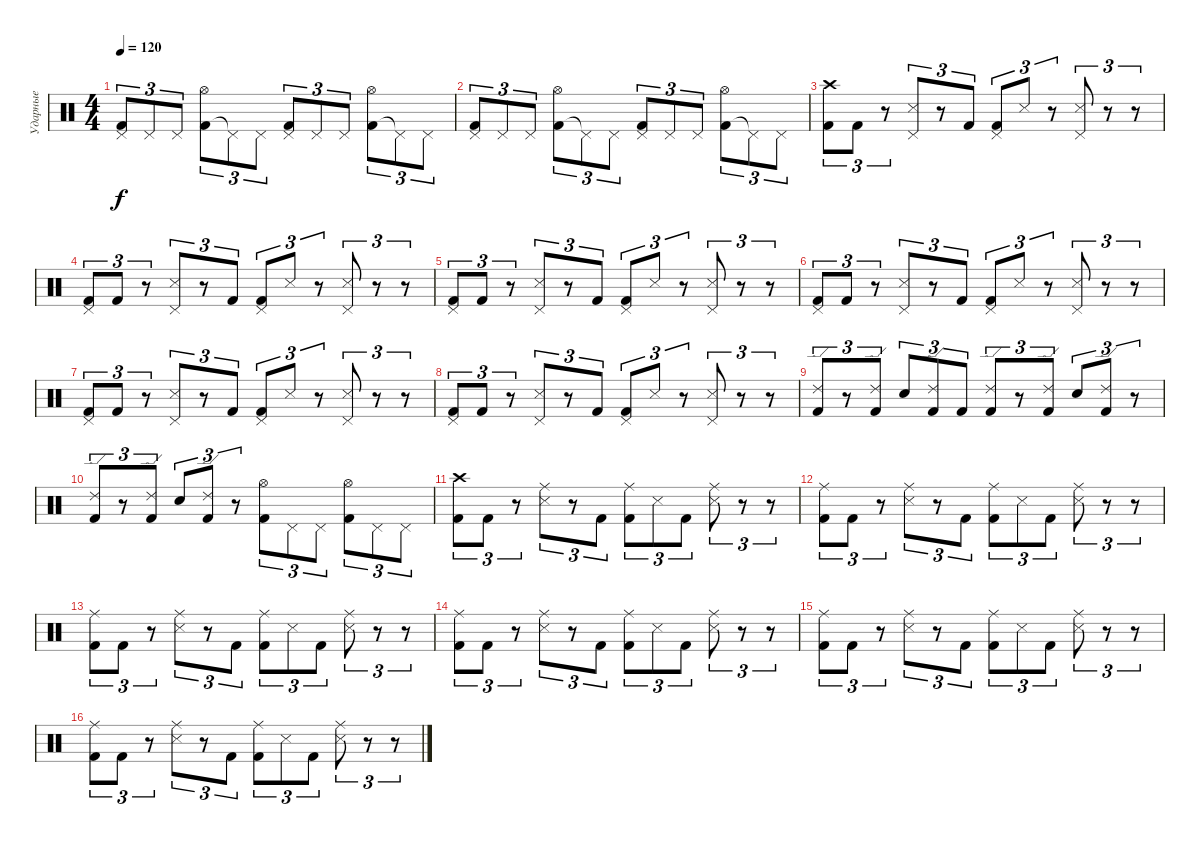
\track ("Ударные" "Ударные") {instrument percussion}
\staff {score}
\articulation defaults
\ts (4 4)
\tempo 120
\clef neutral
\ks c
("Kick (hit) 2" "Pedal Hi-Hat (hit)").8{tu (3 2) dy f} "Pedal Hi-Hat (hit)".8{tu (3 2)} "Pedal Hi-Hat (hit)".8{tu (3 2)} ("Kick (hit) 2" "Hi-Hat (open)").8{tu (3 2)} "Pedal Hi-Hat (hit)"{t}.8{tu (3 2)} "Pedal Hi-Hat (hit)".8{tu (3 2)} ("Kick (hit) 2" "Pedal Hi-Hat (hit)").8{tu (3 2)} "Pedal Hi-Hat (hit)".8{tu (3 2)} "Pedal Hi-Hat (hit)".8{tu (3 2)} ("Kick (hit) 2" "Hi-Hat (open)").8{tu (3 2)} "Pedal Hi-Hat (hit)"{t}.8{tu (3 2)} "Pedal Hi-Hat (hit)".8{tu (3 2)} |
("Kick (hit) 2" "Pedal Hi-Hat (hit)").8{tu (3 2)} "Pedal Hi-Hat (hit)".8{tu (3 2)} "Pedal Hi-Hat (hit)".8{tu (3 2)} ("Kick (hit) 2" "Hi-Hat (open)").8{tu (3 2)} "Pedal Hi-Hat (hit)"{t}.8{tu (3 2)} "Pedal Hi-Hat (hit)".8{tu (3 2)} ("Kick (hit) 2" "Pedal Hi-Hat (hit)").8{tu (3 2)} "Pedal Hi-Hat (hit)".8{tu (3 2)} "Pedal Hi-Hat (hit)".8{tu (3 2)} ("Kick (hit) 2" "Hi-Hat (open)").8{tu (3 2)} "Pedal Hi-Hat (hit)"{t}.8{tu (3 2)} "Pedal Hi-Hat (hit)".8{tu (3 2)} |
("Kick (hit) 2" "Crash high (hit)").8{tu (3 2)} "Kick (hit) 2".8{tu (3 2)} r.8{tu (3 2)} ("Snare (side stick) 3" "Pedal Hi-Hat (hit)").8{tu (3 2)} r.8{tu (3 2)} "Kick (hit) 2".8{tu (3 2)} ("Kick (hit) 2" "Pedal Hi-Hat (hit)").8{tu (3 2)} "Snare (side stick) 3".8{tu (3 2)} r.8{tu (3 2)} ("Snare (side stick) 3" "Pedal Hi-Hat (hit)").8{tu (3 2)} r.8{tu (3 2)} r.8{tu (3 2)} |
("Kick (hit) 2" "Pedal Hi-Hat (hit)").8{tu (3 2)} "Kick (hit) 2".8{tu (3 2)} r.8{tu (3 2)} ("Snare (side stick) 3" "Pedal Hi-Hat (hit)").8{tu (3 2)} r.8{tu (3 2)} "Kick (hit) 2".8{tu (3 2)} ("Kick (hit) 2" "Pedal Hi-Hat (hit)").8{tu (3 2)} "Snare (side stick) 3".8{tu (3 2)} r.8{tu (3 2)} ("Snare (side stick) 3" "Pedal Hi-Hat (hit)").8{tu (3 2)} r.8{tu (3 2)} r.8{tu (3 2)} |
("Kick (hit) 2" "Pedal Hi-Hat (hit)").8{tu (3 2)} "Kick (hit) 2".8{tu (3 2)} r.8{tu (3 2)} ("Snare (side stick) 3" "Pedal Hi-Hat (hit)").8{tu (3 2)} r.8{tu (3 2)} "Kick (hit) 2".8{tu (3 2)} ("Kick (hit) 2" "Pedal Hi-Hat (hit)").8{tu (3 2)} "Snare (side stick) 3".8{tu (3 2)} r.8{tu (3 2)} ("Snare (side stick) 3" "Pedal Hi-Hat (hit)").8{tu (3 2)} r.8{tu (3 2)} r.8{tu (3 2)} |
("Kick (hit) 2" "Pedal Hi-Hat (hit)").8{tu (3 2)} "Kick (hit) 2".8{tu (3 2)} r.8{tu (3 2)} ("Snare (side stick) 3" "Pedal Hi-Hat (hit)").8{tu (3 2)} r.8{tu (3 2)} "Kick (hit) 2".8{tu (3 2)} ("Kick (hit) 2" "Pedal Hi-Hat (hit)").8{tu (3 2)} "Snare (side stick) 3".8{tu (3 2)} r.8{tu (3 2)} ("Snare (side stick) 3" "Pedal Hi-Hat (hit)").8{tu (3 2)} r.8{tu (3 2)} r.8{tu (3 2)} |
("Kick (hit) 2" "Pedal Hi-Hat (hit)").8{tu (3 2)} "Kick (hit) 2".8{tu (3 2)} r.8{tu (3 2)} ("Snare (side stick) 3" "Pedal Hi-Hat (hit)").8{tu (3 2)} r.8{tu (3 2)} "Kick (hit) 2".8{tu (3 2)} ("Kick (hit) 2" "Pedal Hi-Hat (hit)").8{tu (3 2)} "Snare (side stick) 3".8{tu (3 2)} r.8{tu (3 2)} ("Snare (side stick) 3" "Pedal Hi-Hat (hit)").8{tu (3 2)} r.8{tu (3 2)} r.8{tu (3 2)} |
("Kick (hit) 2" "Pedal Hi-Hat (hit)").8{tu (3 2)} "Kick (hit) 2".8{tu (3 2)} r.8{tu (3 2)} ("Snare (side stick) 3" "Pedal Hi-Hat (hit)").8{tu (3 2)} r.8{tu (3 2)} "Kick (hit) 2".8{tu (3 2)} ("Kick (hit) 2" "Pedal Hi-Hat (hit)").8{tu (3 2)} "Snare (side stick) 3".8{tu (3 2)} r.8{tu (3 2)} ("Snare (side stick) 3" "Pedal Hi-Hat (hit)").8{tu (3 2)} r.8{tu (3 2)} r.8{tu (3 2)} |
("Kick (hit) 2" "Ride (edge) 2").8{tu (3 2)} r.8{tu (3 2)} ("Kick (hit) 2" "Ride (edge) 2").8{tu (3 2)} "Snare (hit) 2".8{tu (3 2)} ("Kick (hit) 2" "Ride (edge) 2").8{tu (3 2)} "Kick (hit) 2".8{tu (3 2)} ("Kick (hit) 2" "Ride (edge) 2").8{tu (3 2)} r.8{tu (3 2)} ("Kick (hit) 2" "Ride (edge) 2").8{tu (3 2)} "Snare (hit) 2".8{tu (3 2)} ("Kick (hit) 2" "Ride (edge) 2").8{tu (3 2)} r.8{tu (3 2)} |
("Kick (hit) 2" "Ride (edge) 2").8{tu (3 2)} r.8{tu (3 2)} ("Kick (hit) 2" "Ride (edge) 2").8{tu (3 2)} "Snare (hit) 2".8{tu (3 2)} ("Kick (hit) 2" "Ride (edge) 2").8{tu (3 2)} r.8{tu (3 2)} ("Kick (hit) 2" "Hi-Hat (open)").8{tu (3 2)} "Pedal Hi-Hat (hit)".8{tu (3 2)} "Pedal Hi-Hat (hit)".8{tu (3 2)} ("Kick (hit) 2" "Hi-Hat (open)").8{tu (3 2)} "Pedal Hi-Hat (hit)".8{tu (3 2)} "Pedal Hi-Hat (hit)".8{tu (3 2)} |
("Kick (hit) 2" "Crash high (hit)").8{tu (3 2)} "Kick (hit) 2".8{tu (3 2)} r.8{tu (3 2)} ("Snare (side stick) 3" "Ride (middle)").8{tu (3 2)} r.8{tu (3 2)} "Kick (hit) 2".8{tu (3 2)} ("Kick (hit) 2" "Ride (middle)").8{tu (3 2)} "Snare (side stick) 3".8{tu (3 2)} "Kick (hit) 2".8{tu (3 2)} ("Snare (side stick) 3" "Ride (middle)").8{tu (3 2)} r.8{tu (3 2)} r.8{tu (3 2)} |
("Kick (hit) 2" "Ride (middle)").8{tu (3 2)} "Kick (hit) 2".8{tu (3 2)} r.8{tu (3 2)} ("Snare (side stick) 3" "Ride (middle)").8{tu (3 2)} r.8{tu (3 2)} "Kick (hit) 2".8{tu (3 2)} ("Kick (hit) 2" "Ride (middle)").8{tu (3 2)} "Snare (side stick) 3".8{tu (3 2)} "Kick (hit) 2".8{tu (3 2)} ("Snare (side stick) 3" "Ride (middle)").8{tu (3 2)} r.8{tu (3 2)} r.8{tu (3 2)} |
("Kick (hit) 2" "Ride (middle)").8{tu (3 2)} "Kick (hit) 2".8{tu (3 2)} r.8{tu (3 2)} ("Snare (side stick) 3" "Ride (middle)").8{tu (3 2)} r.8{tu (3 2)} "Kick (hit) 2".8{tu (3 2)} ("Kick (hit) 2" "Ride (middle)").8{tu (3 2)} "Snare (side stick) 3".8{tu (3 2)} "Kick (hit) 2".8{tu (3 2)} ("Snare (side stick) 3" "Ride (middle)").8{tu (3 2)} r.8{tu (3 2)} r.8{tu (3 2)} |
("Kick (hit) 2" "Ride (middle)").8{tu (3 2)} "Kick (hit) 2".8{tu (3 2)} r.8{tu (3 2)} ("Snare (side stick) 3" "Ride (middle)").8{tu (3 2)} r.8{tu (3 2)} "Kick (hit) 2".8{tu (3 2)} ("Kick (hit) 2" "Ride (middle)").8{tu (3 2)} "Snare (side stick) 3".8{tu (3 2)} "Kick (hit) 2".8{tu (3 2)} ("Snare (side stick) 3" "Ride (middle)").8{tu (3 2)} r.8{tu (3 2)} r.8{tu (3 2)} |
("Kick (hit) 2" "Ride (middle)").8{tu (3 2)} "Kick (hit) 2".8{tu (3 2)} r.8{tu (3 2)} ("Snare (side stick) 3" "Ride (middle)").8{tu (3 2)} r.8{tu (3 2)} "Kick (hit) 2".8{tu (3 2)} ("Kick (hit) 2" "Ride (middle)").8{tu (3 2)} "Snare (side stick) 3".8{tu (3 2)} "Kick (hit) 2".8{tu (3 2)} ("Snare (side stick) 3" "Ride (middle)").8{tu (3 2)} r.8{tu (3 2)} r.8{tu (3 2)} |
("Kick (hit) 2" "Ride (middle)").8{tu (3 2)} "Kick (hit) 2".8{tu (3 2)} r.8{tu (3 2)} ("Snare (side stick) 3" "Ride (middle)").8{tu (3 2)} r.8{tu (3 2)} "Kick (hit) 2".8{tu (3 2)} ("Kick (hit) 2" "Ride (middle)").8{tu (3 2)} "Snare (side stick) 3".8{tu (3 2)} "Kick (hit) 2".8{tu (3 2)} ("Snare (side stick) 3" "Ride (middle)").8{tu (3 2)} r.8{tu (3 2)} r.8{tu (3 2)}
